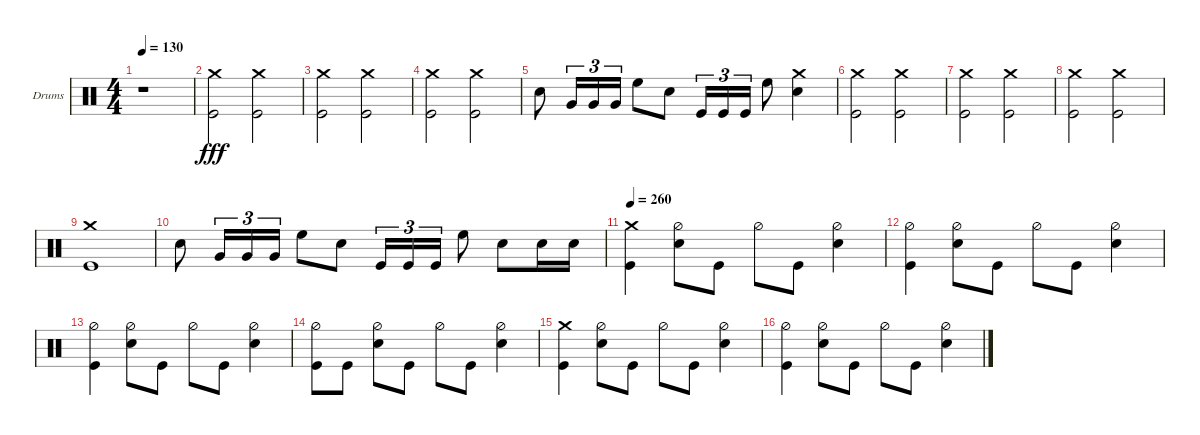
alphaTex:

\defaultSystemsLayout 4
\bracketExtendMode groupsimilarinstruments
\firstSystemTrackNameOrientation horizontal
\otherSystemsTrackNameOrientation horizontal
\track ("Stefan Schwarzmann" "Drums") {instrument percussion}
\staff {score}
\articulation defaults
\ts (4 4)
\tempo 130
\clef neutral
\ks c
r.1{dy fff} |
("Kick (hit)" "Crash medium (hit)").2 ("Kick (hit)" "Crash medium (hit)").2 |
("Kick (hit)" "Crash medium (hit)").2 ("Kick (hit)" "Crash medium (hit)").2 |
("Kick (hit)" "Crash medium (hit)").2 ("Kick (hit)" "Crash medium (hit)").2 |
"Snare (hit) 2".8 "Very Low Tom (hit)".16{tu (3 2)} "Very Low Tom (hit)".16{tu (3 2)} "Very Low Tom (hit)".16{tu (3 2)} "High Floor Tom (hit)".8 "Snare (hit) 2".8 "Kick (hit)".16{tu (3 2)} "Kick (hit)".16{tu (3 2)} "Kick (hit)".16{tu (3 2)} "High Floor Tom (hit)".8 ("Snare (hit) 2" "Crash medium (hit)").4 |
("Kick (hit)" "Crash medium (hit)").2 ("Kick (hit)" "Crash medium (hit)").2 |
("Kick (hit)" "Crash medium (hit)").2 ("Kick (hit)" "Crash medium (hit)").2 |
("Kick (hit)" "Crash medium (hit)").2 ("Kick (hit)" "Crash medium (hit)").2 |
("Kick (hit)" "Crash medium (hit)").1 |
"Snare (hit) 2".8 "Very Low Tom (hit)".16{tu (3 2)} "Very Low Tom (hit)".16{tu (3 2)} "Very Low Tom (hit)".16{tu (3 2)} "High Floor Tom (hit)".8 "Snare (hit) 2".8 "Kick (hit)".16{tu (3 2)} "Kick (hit)".16{tu (3 2)} "Kick (hit)".16{tu (3 2)} "High Floor Tom (hit)".8 "Snare (hit) 2".8 "Snare (hit) 2".16 "Snare (hit) 2".16 |
\tempo 260
("Kick (hit)" "Crash medium (hit)").4 ("Snare (hit) 2" "Hi-Hat (half)").8 "Kick (hit)".8 "Hi-Hat (half)".8 "Kick (hit)".8 ("Snare (hit) 2" "Hi-Hat (half)").4 |
("Kick (hit)" "Hi-Hat (half)").4 ("Snare (hit) 2" "Hi-Hat (half)").8 "Kick (hit)".8 "Hi-Hat (half)".8 "Kick (hit)".8 ("Snare (hit) 2" "Hi-Hat (half)").4 |
("Kick (hit)" "Hi-Hat (half)").4 ("Snare (hit) 2" "Hi-Hat (half)").8 "Kick (hit)".8 "Hi-Hat (half)".8 "Kick (hit)".8 ("Snare (hit) 2" "Hi-Hat (half)").4 |
("Kick (hit)" "Hi-Hat (half)").8 "Kick (hit)".8 ("Snare (hit) 2" "Hi-Hat (half)").8 "Kick (hit)".8 "Hi-Hat (half)".8 "Kick (hit)".8 ("Snare (hit) 2" "Hi-Hat (half)").4 |
("Kick (hit)" "Crash medium (hit)").4 ("Snare (hit) 2" "Hi-Hat (half)").8 "Kick (hit)".8 "Hi-Hat (half)".8 "Kick (hit)".8 ("Snare (hit) 2" "Hi-Hat (half)").4 |
("Kick (hit)" "Hi-Hat (half)").4 ("Snare (hit) 2" "Hi-Hat (half)").8 "Kick (hit)".8 "Hi-Hat (half)".8 "Kick (hit)".8 ("Snare (hit) 2" "Hi-Hat (half)").4
